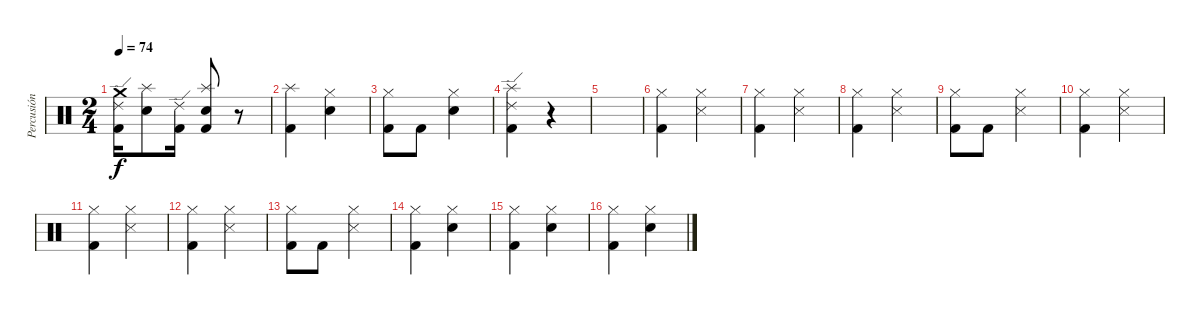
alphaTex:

\track ("Percusión" "Percusión") {instrument percussion}
\staff {score}
\articulation defaults
\ts (2 4)
\tempo 74
\clef neutral
\ks c
("Ride (edge) 2" "Crash medium (hit)" "Kick (hit) 2").16{dy f} ("Splash (hit)" "Electric Snare (hit)").8 ("Ride (edge) 2" "Kick (hit) 2").16 ("Splash (hit)" "Electric Snare (hit)" "Kick (hit) 2").8 r.8 |
("Splash (hit)" "Kick (hit) 2").4 ("Hi-Hat (closed)" "Electric Snare (hit)").4 |
("Hi-Hat (closed)" "Kick (hit) 2").8 "Kick (hit) 2".8 ("Hi-Hat (closed)" "Electric Snare (hit)").4 |
("Ride (edge) 2" "Splash (hit)" "Kick (hit) 2").4 r.4 |
|
("Hi-Hat (closed)" "Kick (hit) 2").4 ("Hi-Hat (closed)" "Snare (side stick) 3").4 |
("Hi-Hat (closed)" "Kick (hit) 2").4 ("Hi-Hat (closed)" "Snare (side stick) 3").4 |
("Hi-Hat (closed)" "Kick (hit) 2").4 ("Hi-Hat (closed)" "Snare (side stick) 3").4 |
("Hi-Hat (closed)" "Kick (hit) 2").8 "Kick (hit) 2".8 ("Hi-Hat (closed)" "Snare (side stick) 3").4 |
("Hi-Hat (closed)" "Kick (hit) 2").4 ("Hi-Hat (closed)" "Snare (side stick) 3").4 |
("Hi-Hat (closed)" "Kick (hit) 2").4 ("Hi-Hat (closed)" "Snare (side stick) 3").4 |
("Hi-Hat (closed)" "Kick (hit) 2").4 ("Hi-Hat (closed)" "Snare (side stick) 3").4 |
("Hi-Hat (closed)" "Kick (hit) 2").8 "Kick (hit) 2".8 ("Hi-Hat (closed)" "Snare (side stick) 3").4 |
("Hi-Hat (closed)" "Kick (hit) 2").4 ("Hi-Hat (closed)" "Electric Snare (hit)").4 |
("Hi-Hat (closed)" "Kick (hit) 2").4 ("Hi-Hat (closed)" "Electric Snare (hit)").4 |
("Hi-Hat (closed)" "Kick (hit) 2").4 ("Hi-Hat (closed)" "Electric Snare (hit)").4
